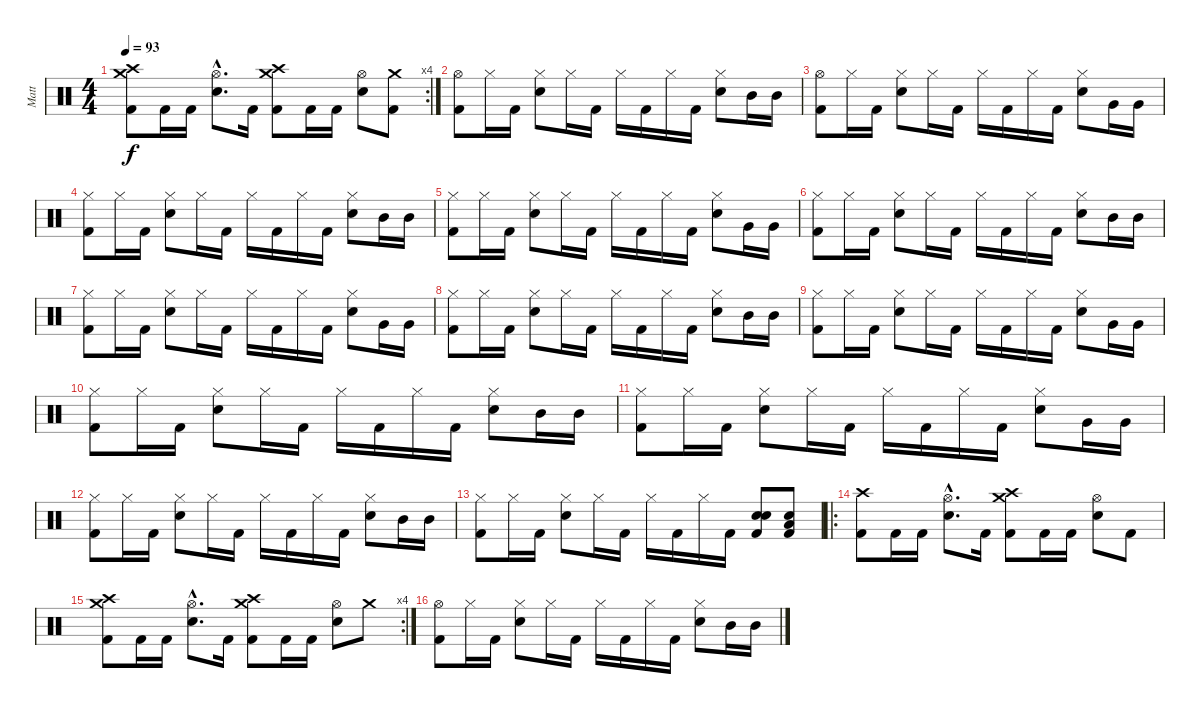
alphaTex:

\track ("Matt" "Matt") {instrument percussion}
\staff {score}
\articulation defaults
\rc 4
\ts (4 4)
\tempo 93
\clef neutral
\ks c
("Crash medium (hit)" "Crash high (hit)" "Kick (hit) 2").8{dy f} "Kick (hit) 2".16 "Kick (hit) 2".16 ("Hi-Hat (open)"{hac} "Electric Snare (hit)"{hac}).8{d} "Kick (hit) 2".16 ("Crash medium (hit)" "Crash high (hit)" "Kick (hit) 2").8 "Kick (hit) 2".16 "Kick (hit) 2".16 ("Hi-Hat (open)" "Electric Snare (hit)").8 ("Crash medium (hit)" "Kick (hit) 2").8 |
("Hi-Hat (open)" "Kick (hit) 2").8 "Hi-Hat (closed)".16 "Kick (hit) 2".16 ("Hi-Hat (closed)" "Electric Snare (hit)").8 "Hi-Hat (closed)".16 "Kick (hit) 2".16 "Hi-Hat (closed)".16 "Kick (hit) 2".16 "Hi-Hat (closed)".16 "Kick (hit) 2".16 ("Hi-Hat (closed)" "Electric Snare (hit)").8 "Mid Tom (hit)".16 "Mid Tom (hit)".16 |
("Hi-Hat (open)" "Kick (hit) 2").8 "Hi-Hat (closed)".16 "Kick (hit) 2".16 ("Hi-Hat (closed)" "Electric Snare (hit)").8 "Hi-Hat (closed)".16 "Kick (hit) 2".16 "Hi-Hat (closed)".16 "Kick (hit) 2".16 "Hi-Hat (closed)".16 "Kick (hit) 2".16 ("Hi-Hat (closed)" "Electric Snare (hit)").8 "Very Low Tom (hit)".16 "Very Low Tom (hit)".16 |
("Hi-Hat (closed)" "Kick (hit) 2").8 "Hi-Hat (closed)".16 "Kick (hit) 2".16 ("Hi-Hat (closed)" "Electric Snare (hit)").8 "Hi-Hat (closed)".16 "Kick (hit) 2".16 "Hi-Hat (closed)".16 "Kick (hit) 2".16 "Hi-Hat (closed)".16 "Kick (hit) 2".16 ("Hi-Hat (closed)" "Electric Snare (hit)").8 "Mid Tom (hit)".16 "Mid Tom (hit)".16 |
("Hi-Hat (closed)" "Kick (hit) 2").8 "Hi-Hat (closed)".16 "Kick (hit) 2".16 ("Hi-Hat (closed)" "Electric Snare (hit)").8 "Hi-Hat (closed)".16 "Kick (hit) 2".16 "Hi-Hat (closed)".16 "Kick (hit) 2".16 "Hi-Hat (closed)".16 "Kick (hit) 2".16 ("Hi-Hat (closed)" "Electric Snare (hit)").8 "Very Low Tom (hit)".16 "Very Low Tom (hit)".16 |
("Hi-Hat (closed)" "Kick (hit) 2").8 "Hi-Hat (closed)".16 "Kick (hit) 2".16 ("Hi-Hat (closed)" "Electric Snare (hit)").8 "Hi-Hat (closed)".16 "Kick (hit) 2".16 "Hi-Hat (closed)".16 "Kick (hit) 2".16 "Hi-Hat (closed)".16 "Kick (hit) 2".16 ("Hi-Hat (closed)" "Electric Snare (hit)").8 "Mid Tom (hit)".16 "Mid Tom (hit)".16 |
("Hi-Hat (closed)" "Kick (hit) 2").8 "Hi-Hat (closed)".16 "Kick (hit) 2".16 ("Hi-Hat (closed)" "Electric Snare (hit)").8 "Hi-Hat (closed)".16 "Kick (hit) 2".16 "Hi-Hat (closed)".16 "Kick (hit) 2".16 "Hi-Hat (closed)".16 "Kick (hit) 2".16 ("Hi-Hat (closed)" "Electric Snare (hit)").8 "Very Low Tom (hit)".16 "Very Low Tom (hit)".16 |
("Hi-Hat (closed)" "Kick (hit) 2").8 "Hi-Hat (closed)".16 "Kick (hit) 2".16 ("Hi-Hat (closed)" "Electric Snare (hit)").8 "Hi-Hat (closed)".16 "Kick (hit) 2".16 "Hi-Hat (closed)".16 "Kick (hit) 2".16 "Hi-Hat (closed)".16 "Kick (hit) 2".16 ("Hi-Hat (closed)" "Electric Snare (hit)").8 "Mid Tom (hit)".16 "Mid Tom (hit)".16 |
("Hi-Hat (closed)" "Kick (hit) 2").8 "Hi-Hat (closed)".16 "Kick (hit) 2".16 ("Hi-Hat (closed)" "Electric Snare (hit)").8 "Hi-Hat (closed)".16 "Kick (hit) 2".16 "Hi-Hat (closed)".16 "Kick (hit) 2".16 "Hi-Hat (closed)".16 "Kick (hit) 2".16 ("Hi-Hat (closed)" "Electric Snare (hit)").8 "Very Low Tom (hit)".16 "Very Low Tom (hit)".16 |
("Hi-Hat (closed)" "Kick (hit) 2").8 "Hi-Hat (closed)".16 "Kick (hit) 2".16 ("Hi-Hat (closed)" "Electric Snare (hit)").8 "Hi-Hat (closed)".16 "Kick (hit) 2".16 "Hi-Hat (closed)".16 "Kick (hit) 2".16 "Hi-Hat (closed)".16 "Kick (hit) 2".16 ("Hi-Hat (closed)" "Electric Snare (hit)").8 "Mid Tom (hit)".16 "Mid Tom (hit)".16 |
("Hi-Hat (closed)" "Kick (hit) 2").8 "Hi-Hat (closed)".16 "Kick (hit) 2".16 ("Hi-Hat (closed)" "Electric Snare (hit)").8 "Hi-Hat (closed)".16 "Kick (hit) 2".16 "Hi-Hat (closed)".16 "Kick (hit) 2".16 "Hi-Hat (closed)".16 "Kick (hit) 2".16 ("Hi-Hat (closed)" "Electric Snare (hit)").8 "Very Low Tom (hit)".16 "Very Low Tom (hit)".16 |
("Hi-Hat (closed)" "Kick (hit) 2").8 "Hi-Hat (closed)".16 "Kick (hit) 2".16 ("Hi-Hat (closed)" "Electric Snare (hit)").8 "Hi-Hat (closed)".16 "Kick (hit) 2".16 "Hi-Hat (closed)".16 "Kick (hit) 2".16 "Hi-Hat (closed)".16 "Kick (hit) 2".16 ("Hi-Hat (closed)" "Electric Snare (hit)").8 "Mid Tom (hit)".16 "Mid Tom (hit)".16 |
("Hi-Hat (closed)" "Kick (hit) 2").8 "Hi-Hat (closed)".16 "Kick (hit) 2".16 ("Hi-Hat (closed)" "Electric Snare (hit)").8 "Hi-Hat (closed)".16 "Kick (hit) 2".16 "Hi-Hat (closed)".16 "Kick (hit) 2".16 "Hi-Hat (closed)".16 "Kick (hit) 2".16 ("Electric Snare (hit)" "Electric Snare (hit)" "Kick (hit) 2").8 ("Low Tom (hit)" "Electric Snare (hit)" "Kick (hit) 2").8 |
\ro
("Crash high (hit)" "Kick (hit) 2").8 "Kick (hit) 2".16 "Kick (hit) 2".16 ("Hi-Hat (open)"{hac} "Electric Snare (hit)"{hac}).8{d} "Kick (hit) 2".16 ("Crash medium (hit)" "Crash high (hit)" "Kick (hit) 2").8 "Kick (hit) 2".16 "Kick (hit) 2".16 ("Hi-Hat (open)" "Electric Snare (hit)").8 "Kick (hit) 2".8 |
\rc 4
("Crash medium (hit)" "Crash high (hit)" "Kick (hit) 2").8 "Kick (hit) 2".16 "Kick (hit) 2".16 ("Hi-Hat (open)"{hac} "Electric Snare (hit)"{hac}).8{d} "Kick (hit) 2".16 ("Crash medium (hit)" "Crash high (hit)" "Kick (hit) 2").8 "Kick (hit) 2".16 "Kick (hit) 2".16 ("Hi-Hat (open)" "Electric Snare (hit)").8 "Crash medium (hit)".8 |
("Hi-Hat (open)" "Kick (hit) 2").8 "Hi-Hat (closed)".16 "Kick (hit) 2".16 ("Hi-Hat (closed)" "Electric Snare (hit)").8 "Hi-Hat (closed)".16 "Kick (hit) 2".16 "Hi-Hat (closed)".16 "Kick (hit) 2".16 "Hi-Hat (closed)".16 "Kick (hit) 2".16 ("Hi-Hat (closed)" "Electric Snare (hit)").8 "Mid Tom (hit)".16 "Mid Tom (hit)".16
